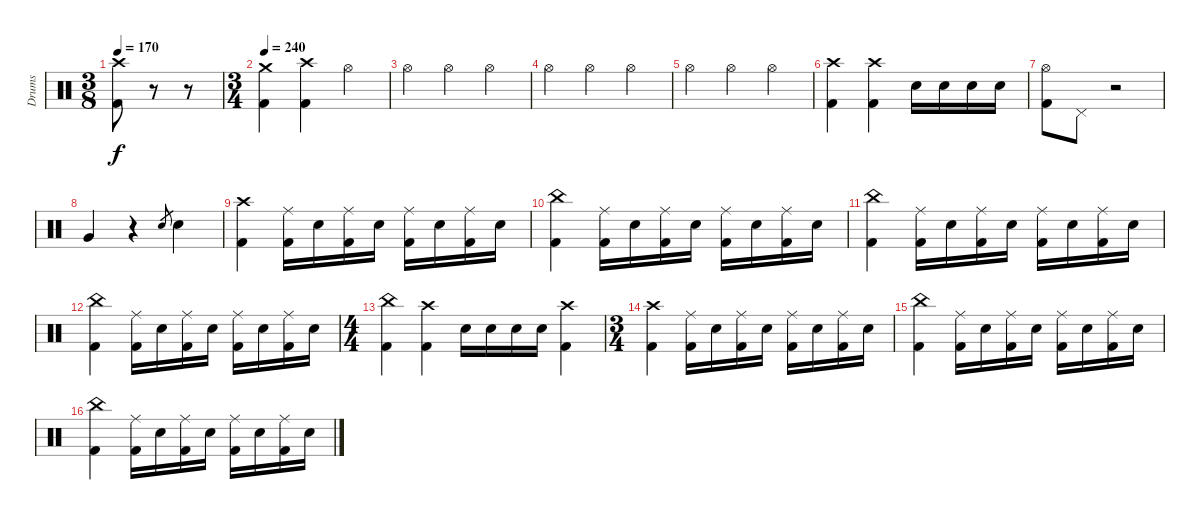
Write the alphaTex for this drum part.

\track ("Drums" "Drums") {instrument percussion}
\staff {score}
\articulation defaults
\ts (3 8)
\tempo 170
\clef neutral
\ks c
("Crash high (hit)" "Kick (hit) 2").8{dy f volume 13} r.8{volume 0} r.8 |
\ts (3 4)
\tempo 240
("Crash medium (hit)" "Kick (hit) 2").4{volume 13} ("Crash high (hit)" "Kick (hit) 2").4 "Hi-Hat (open)".4 |
"Hi-Hat (open)".4 "Hi-Hat (open)".4 "Hi-Hat (open)".4 |
"Hi-Hat (open)".4 "Hi-Hat (open)".4 "Hi-Hat (open)".4 |
"Hi-Hat (open)".4 "Hi-Hat (open)".4 "Hi-Hat (open)".4 |
("Crash high (hit)" "Kick (hit) 2").4 ("Crash high (hit)" "Kick (hit) 2").4 "Electric Snare (hit)".16 "Electric Snare (hit)".16 "Electric Snare (hit)".16 "Electric Snare (hit)".16 |
("Hi-Hat (open)" "Kick (hit) 2").8 "Pedal Hi-Hat (hit)".8 r.2 |
"Very Low Tom (hit)".4 r.4 "Electric Snare (hit)".8{gr} "Electric Snare (hit)".4 |
("Crash high (hit)" "Kick (hit) 2").4 ("Ride (middle)" "Kick (hit) 2").16 "Electric Snare (hit)".16 ("Ride (middle)" "Kick (hit) 2").16 "Electric Snare (hit)".16 ("Ride (middle)" "Kick (hit) 2").16 "Electric Snare (hit)".16 ("Ride (middle)" "Kick (hit) 2").16 "Electric Snare (hit)".16 |
("China (hit)" "Kick (hit) 2").4 ("Ride (middle)" "Kick (hit) 2").16 "Electric Snare (hit)".16 ("Ride (middle)" "Kick (hit) 2").16 "Electric Snare (hit)".16 ("Ride (middle)" "Kick (hit) 2").16 "Electric Snare (hit)".16 ("Ride (middle)" "Kick (hit) 2").16 "Electric Snare (hit)".16 |
("China (hit)" "Kick (hit) 2").4 ("Ride (middle)" "Kick (hit) 2").16 "Electric Snare (hit)".16 ("Ride (middle)" "Kick (hit) 2").16 "Electric Snare (hit)".16 ("Ride (middle)" "Kick (hit) 2").16 "Electric Snare (hit)".16 ("Ride (middle)" "Kick (hit) 2").16 "Electric Snare (hit)".16 |
("China (hit)" "Kick (hit) 2").4 ("Ride (middle)" "Kick (hit) 2").16 "Electric Snare (hit)".16 ("Ride (middle)" "Kick (hit) 2").16 "Electric Snare (hit)".16 ("Ride (middle)" "Kick (hit) 2").16 "Electric Snare (hit)".16 ("Ride (middle)" "Kick (hit) 2").16 "Electric Snare (hit)".16 |
\ts (4 4)
("China (hit)" "Kick (hit) 2").4 ("Crash high (hit)" "Kick (hit) 2").4 "Electric Snare (hit)".16 "Electric Snare (hit)".16 "Electric Snare (hit)".16 "Electric Snare (hit)".16 ("Crash high (hit)" "Kick (hit) 2").4 |
\ts (3 4)
("Crash high (hit)" "Kick (hit) 2").4 ("Ride (middle)" "Kick (hit) 2").16 "Electric Snare (hit)".16 ("Ride (middle)" "Kick (hit) 2").16 "Electric Snare (hit)".16 ("Ride (middle)" "Kick (hit) 2").16 "Electric Snare (hit)".16 ("Ride (middle)" "Kick (hit) 2").16 "Electric Snare (hit)".16 |
("China (hit)" "Kick (hit) 2").4 ("Ride (middle)" "Kick (hit) 2").16 "Electric Snare (hit)".16 ("Ride (middle)" "Kick (hit) 2").16 "Electric Snare (hit)".16 ("Ride (middle)" "Kick (hit) 2").16 "Electric Snare (hit)".16 ("Ride (middle)" "Kick (hit) 2").16 "Electric Snare (hit)".16 |
("China (hit)" "Kick (hit) 2").4 ("Ride (middle)" "Kick (hit) 2").16 "Electric Snare (hit)".16 ("Ride (middle)" "Kick (hit) 2").16 "Electric Snare (hit)".16 ("Ride (middle)" "Kick (hit) 2").16 "Electric Snare (hit)".16 ("Ride (middle)" "Kick (hit) 2").16 "Electric Snare (hit)".16
